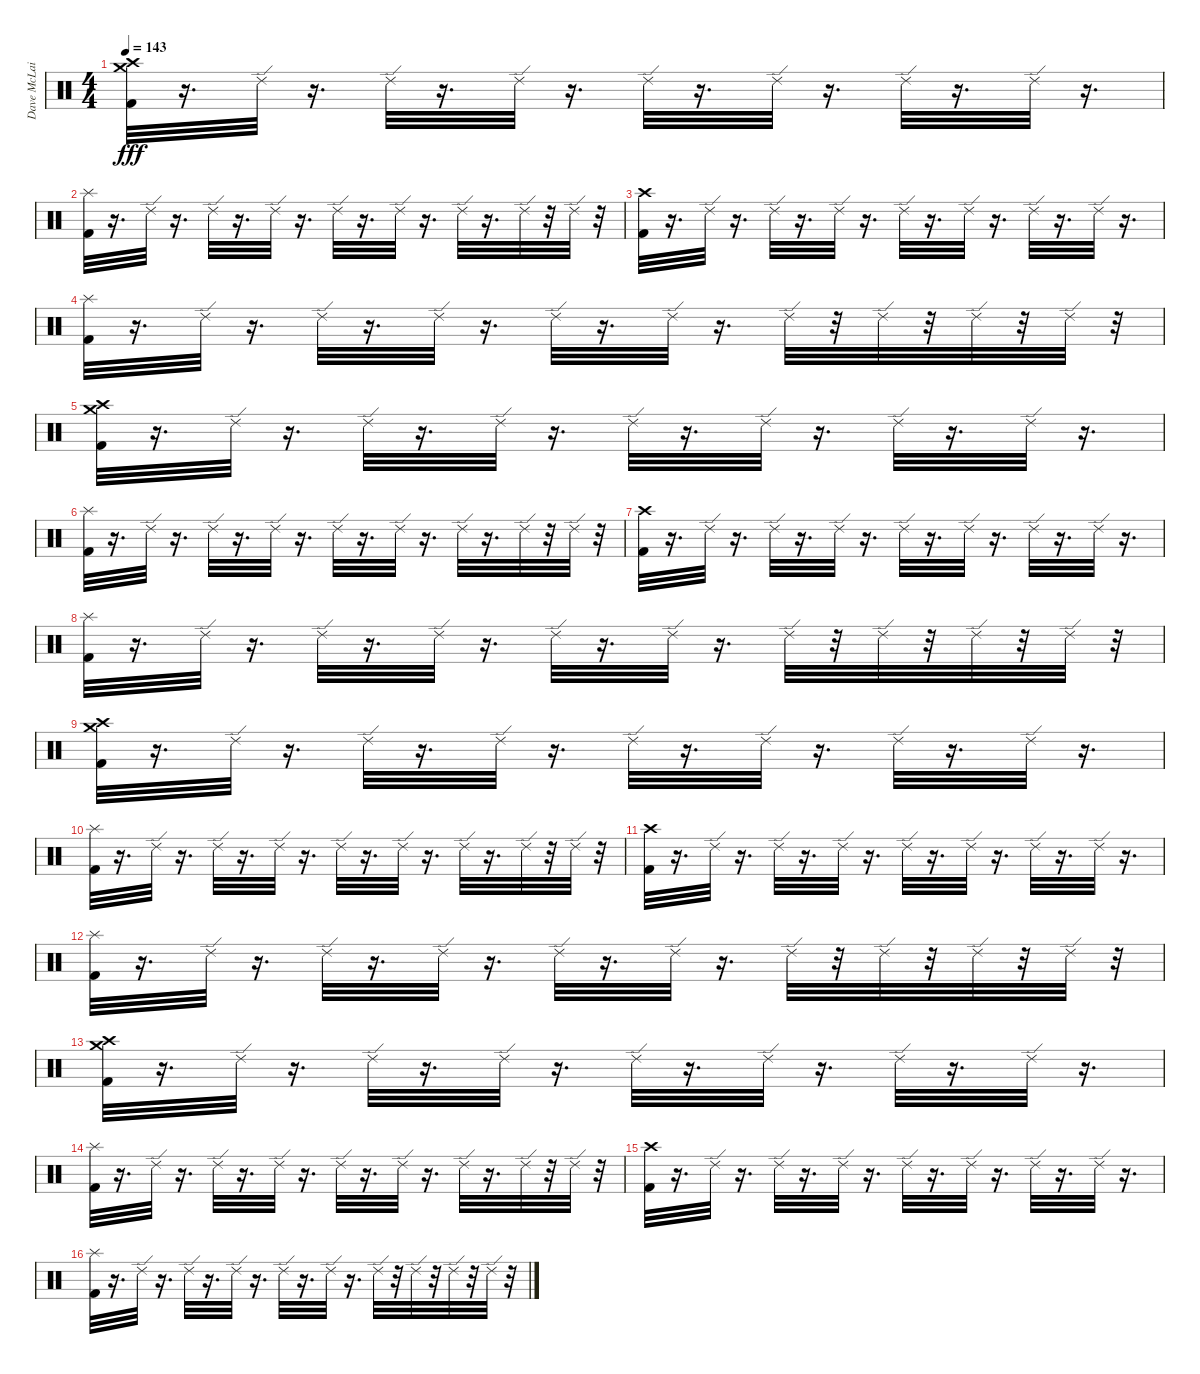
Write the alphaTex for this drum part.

\track ("Dave McLain" "Dave McLai") {instrument percussion}
\staff {score}
\articulation defaults
\ts (4 4)
\tempo 143
\clef neutral
\ks c
("Crash medium (hit)" "Crash high (hit)" "Kick (hit) 2").32{dy fff} r.16{d} "Ride (edge) 2".32 r.16{d} "Ride (edge) 2".32 r.16{d} "Ride (edge) 2".32 r.16{d} "Ride (edge) 2".32 r.16{d} "Ride (edge) 2".32 r.16{d} "Ride (edge) 2".32 r.16{d} "Ride (edge) 2".32 r.16{d} |
("Splash (hit)" "Kick (hit) 2").32 r.16{d} "Ride (edge) 2".32 r.16{d} "Ride (edge) 2".32 r.16{d} "Ride (edge) 2".32 r.16{d} "Ride (edge) 2".32 r.16{d} "Ride (edge) 2".32 r.16{d} "Ride (edge) 2".32 r.16{d} "Ride (edge) 2".32 r.32 "Ride (edge) 2".32 r.32 |
("Crash high (hit)" "Kick (hit) 2").32 r.16{d} "Ride (edge) 2".32 r.16{d} "Ride (edge) 2".32 r.16{d} "Ride (edge) 2".32 r.16{d} "Ride (edge) 2".32 r.16{d} "Ride (edge) 2".32 r.16{d} "Ride (edge) 2".32 r.16{d} "Ride (edge) 2".32 r.16{d} |
("Splash (hit)" "Kick (hit) 2").32 r.16{d} "Ride (edge) 2".32 r.16{d} "Ride (edge) 2".32 r.16{d} "Ride (edge) 2".32 r.16{d} "Ride (edge) 2".32 r.16{d} "Ride (edge) 2".32 r.16{d} "Ride (edge) 2".32 r.32 "Ride (edge) 2".32 r.32 "Ride (edge) 2".32 r.32 "Ride (edge) 2".32 r.32 |
("Crash medium (hit)" "Crash high (hit)" "Kick (hit) 2").32 r.16{d} "Ride (edge) 2".32 r.16{d} "Ride (edge) 2".32 r.16{d} "Ride (edge) 2".32 r.16{d} "Ride (edge) 2".32 r.16{d} "Ride (edge) 2".32 r.16{d} "Ride (edge) 2".32 r.16{d} "Ride (edge) 2".32 r.16{d} |
("Splash (hit)" "Kick (hit) 2").32 r.16{d} "Ride (edge) 2".32 r.16{d} "Ride (edge) 2".32 r.16{d} "Ride (edge) 2".32 r.16{d} "Ride (edge) 2".32 r.16{d} "Ride (edge) 2".32 r.16{d} "Ride (edge) 2".32 r.16{d} "Ride (edge) 2".32 r.32 "Ride (edge) 2".32 r.32 |
("Crash high (hit)" "Kick (hit) 2").32 r.16{d} "Ride (edge) 2".32 r.16{d} "Ride (edge) 2".32 r.16{d} "Ride (edge) 2".32 r.16{d} "Ride (edge) 2".32 r.16{d} "Ride (edge) 2".32 r.16{d} "Ride (edge) 2".32 r.16{d} "Ride (edge) 2".32 r.16{d} |
("Splash (hit)" "Kick (hit) 2").32 r.16{d} "Ride (edge) 2".32 r.16{d} "Ride (edge) 2".32 r.16{d} "Ride (edge) 2".32 r.16{d} "Ride (edge) 2".32 r.16{d} "Ride (edge) 2".32 r.16{d} "Ride (edge) 2".32 r.32 "Ride (edge) 2".32 r.32 "Ride (edge) 2".32 r.32 "Ride (edge) 2".32 r.32 |
("Crash medium (hit)" "Crash high (hit)" "Kick (hit) 2").32 r.16{d} "Ride (edge) 2".32 r.16{d} "Ride (edge) 2".32 r.16{d} "Ride (edge) 2".32 r.16{d} "Ride (edge) 2".32 r.16{d} "Ride (edge) 2".32 r.16{d} "Ride (edge) 2".32 r.16{d} "Ride (edge) 2".32 r.16{d} |
("Splash (hit)" "Kick (hit) 2").32 r.16{d} "Ride (edge) 2".32 r.16{d} "Ride (edge) 2".32 r.16{d} "Ride (edge) 2".32 r.16{d} "Ride (edge) 2".32 r.16{d} "Ride (edge) 2".32 r.16{d} "Ride (edge) 2".32 r.16{d} "Ride (edge) 2".32 r.32 "Ride (edge) 2".32 r.32 |
("Crash high (hit)" "Kick (hit) 2").32 r.16{d} "Ride (edge) 2".32 r.16{d} "Ride (edge) 2".32 r.16{d} "Ride (edge) 2".32 r.16{d} "Ride (edge) 2".32 r.16{d} "Ride (edge) 2".32 r.16{d} "Ride (edge) 2".32 r.16{d} "Ride (edge) 2".32 r.16{d} |
("Splash (hit)" "Kick (hit) 2").32 r.16{d} "Ride (edge) 2".32 r.16{d} "Ride (edge) 2".32 r.16{d} "Ride (edge) 2".32 r.16{d} "Ride (edge) 2".32 r.16{d} "Ride (edge) 2".32 r.16{d} "Ride (edge) 2".32 r.32 "Ride (edge) 2".32 r.32 "Ride (edge) 2".32 r.32 "Ride (edge) 2".32 r.32 |
("Crash medium (hit)" "Crash high (hit)" "Kick (hit) 2").32 r.16{d} "Ride (edge) 2".32 r.16{d} "Ride (edge) 2".32 r.16{d} "Ride (edge) 2".32 r.16{d} "Ride (edge) 2".32 r.16{d} "Ride (edge) 2".32 r.16{d} "Ride (edge) 2".32 r.16{d} "Ride (edge) 2".32 r.16{d} |
("Splash (hit)" "Kick (hit) 2").32 r.16{d} "Ride (edge) 2".32 r.16{d} "Ride (edge) 2".32 r.16{d} "Ride (edge) 2".32 r.16{d} "Ride (edge) 2".32 r.16{d} "Ride (edge) 2".32 r.16{d} "Ride (edge) 2".32 r.16{d} "Ride (edge) 2".32 r.32 "Ride (edge) 2".32 r.32 |
("Crash high (hit)" "Kick (hit) 2").32 r.16{d} "Ride (edge) 2".32 r.16{d} "Ride (edge) 2".32 r.16{d} "Ride (edge) 2".32 r.16{d} "Ride (edge) 2".32 r.16{d} "Ride (edge) 2".32 r.16{d} "Ride (edge) 2".32 r.16{d} "Ride (edge) 2".32 r.16{d} |
("Splash (hit)" "Kick (hit) 2").32 r.16{d} "Ride (edge) 2".32 r.16{d} "Ride (edge) 2".32 r.16{d} "Ride (edge) 2".32 r.16{d} "Ride (edge) 2".32 r.16{d} "Ride (edge) 2".32 r.16{d} "Ride (edge) 2".32 r.32 "Ride (edge) 2".32 r.32 "Ride (edge) 2".32 r.32 "Ride (edge) 2".32 r.32
